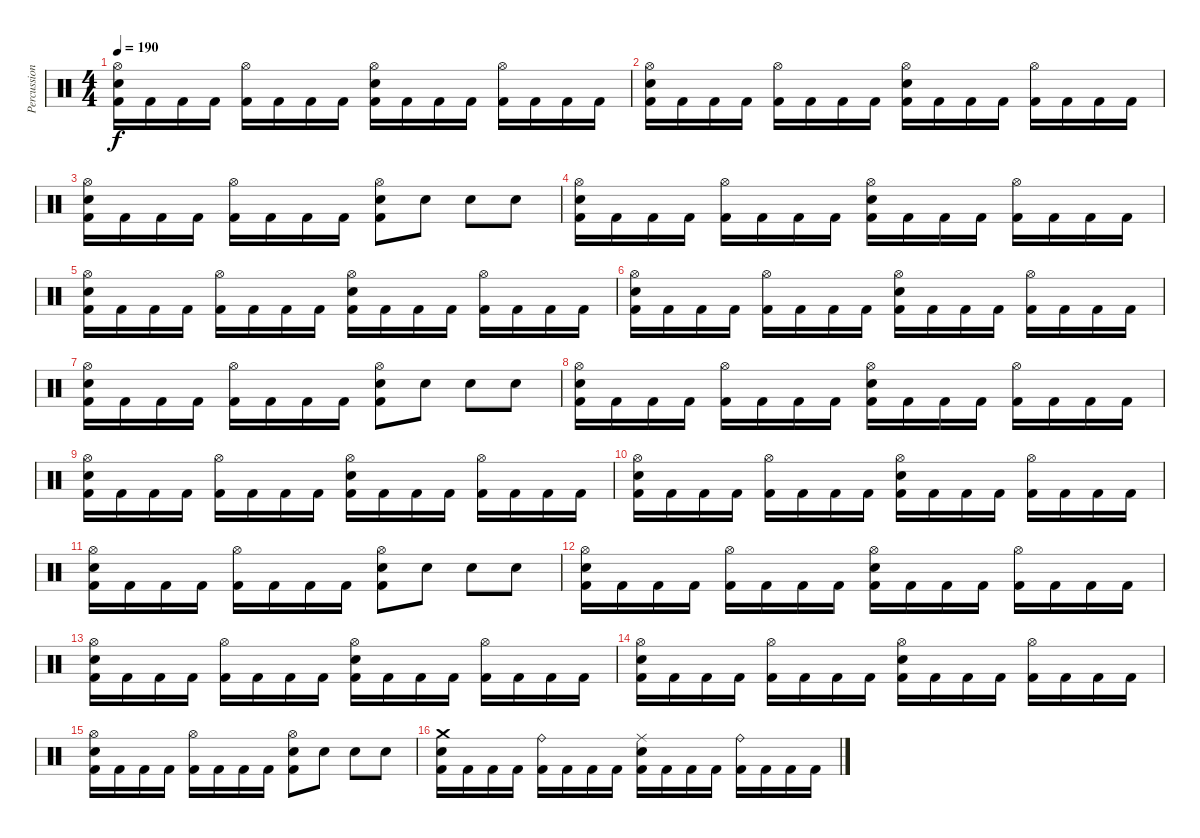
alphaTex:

\track ("Percussion" "Percussion") {instrument percussion}
\staff {score}
\articulation defaults
\ts (4 4)
\tempo 190
\clef neutral
\ks c
("Hi-Hat (open)" "Snare (hit) 2" "Kick (hit) 2").16{dy f} "Kick (hit) 2".16 "Kick (hit) 2".16 "Kick (hit) 2".16 ("Hi-Hat (open)" "Kick (hit) 2").16 "Kick (hit) 2".16 "Kick (hit) 2".16 "Kick (hit) 2".16 ("Hi-Hat (open)" "Snare (hit) 2" "Kick (hit) 2").16 "Kick (hit) 2".16 "Kick (hit) 2".16 "Kick (hit) 2".16 ("Hi-Hat (open)" "Kick (hit) 2").16 "Kick (hit) 2".16 "Kick (hit) 2".16 "Kick (hit) 2".16 |
("Hi-Hat (open)" "Snare (hit) 2" "Kick (hit) 2").16 "Kick (hit) 2".16 "Kick (hit) 2".16 "Kick (hit) 2".16 ("Hi-Hat (open)" "Kick (hit) 2").16 "Kick (hit) 2".16 "Kick (hit) 2".16 "Kick (hit) 2".16 ("Hi-Hat (open)" "Snare (hit) 2" "Kick (hit) 2").16 "Kick (hit) 2".16 "Kick (hit) 2".16 "Kick (hit) 2".16 ("Hi-Hat (open)" "Kick (hit) 2").16 "Kick (hit) 2".16 "Kick (hit) 2".16 "Kick (hit) 2".16 |
("Hi-Hat (open)" "Snare (hit) 2" "Kick (hit) 2").16 "Kick (hit) 2".16 "Kick (hit) 2".16 "Kick (hit) 2".16 ("Hi-Hat (open)" "Kick (hit) 2").16 "Kick (hit) 2".16 "Kick (hit) 2".16 "Kick (hit) 2".16 ("Hi-Hat (open)" "Snare (hit) 2" "Kick (hit) 2").8 "Snare (hit) 2".8 "Snare (hit) 2".8 "Snare (hit) 2".8 |
("Hi-Hat (open)" "Snare (hit) 2" "Kick (hit) 2").16 "Kick (hit) 2".16 "Kick (hit) 2".16 "Kick (hit) 2".16 ("Hi-Hat (open)" "Kick (hit) 2").16 "Kick (hit) 2".16 "Kick (hit) 2".16 "Kick (hit) 2".16 ("Hi-Hat (open)" "Snare (hit) 2" "Kick (hit) 2").16 "Kick (hit) 2".16 "Kick (hit) 2".16 "Kick (hit) 2".16 ("Hi-Hat (open)" "Kick (hit) 2").16 "Kick (hit) 2".16 "Kick (hit) 2".16 "Kick (hit) 2".16 |
("Hi-Hat (open)" "Snare (hit) 2" "Kick (hit) 2").16 "Kick (hit) 2".16 "Kick (hit) 2".16 "Kick (hit) 2".16 ("Hi-Hat (open)" "Kick (hit) 2").16 "Kick (hit) 2".16 "Kick (hit) 2".16 "Kick (hit) 2".16 ("Hi-Hat (open)" "Snare (hit) 2" "Kick (hit) 2").16 "Kick (hit) 2".16 "Kick (hit) 2".16 "Kick (hit) 2".16 ("Hi-Hat (open)" "Kick (hit) 2").16 "Kick (hit) 2".16 "Kick (hit) 2".16 "Kick (hit) 2".16 |
("Hi-Hat (open)" "Snare (hit) 2" "Kick (hit) 2").16 "Kick (hit) 2".16 "Kick (hit) 2".16 "Kick (hit) 2".16 ("Hi-Hat (open)" "Kick (hit) 2").16 "Kick (hit) 2".16 "Kick (hit) 2".16 "Kick (hit) 2".16 ("Hi-Hat (open)" "Snare (hit) 2" "Kick (hit) 2").16 "Kick (hit) 2".16 "Kick (hit) 2".16 "Kick (hit) 2".16 ("Hi-Hat (open)" "Kick (hit) 2").16 "Kick (hit) 2".16 "Kick (hit) 2".16 "Kick (hit) 2".16 |
("Hi-Hat (open)" "Snare (hit) 2" "Kick (hit) 2").16 "Kick (hit) 2".16 "Kick (hit) 2".16 "Kick (hit) 2".16 ("Hi-Hat (open)" "Kick (hit) 2").16 "Kick (hit) 2".16 "Kick (hit) 2".16 "Kick (hit) 2".16 ("Hi-Hat (open)" "Snare (hit) 2" "Kick (hit) 2").8 "Snare (hit) 2".8 "Snare (hit) 2".8 "Snare (hit) 2".8 |
("Hi-Hat (open)" "Snare (hit) 2" "Kick (hit) 2").16 "Kick (hit) 2".16 "Kick (hit) 2".16 "Kick (hit) 2".16 ("Hi-Hat (open)" "Kick (hit) 2").16 "Kick (hit) 2".16 "Kick (hit) 2".16 "Kick (hit) 2".16 ("Hi-Hat (open)" "Snare (hit) 2" "Kick (hit) 2").16 "Kick (hit) 2".16 "Kick (hit) 2".16 "Kick (hit) 2".16 ("Hi-Hat (open)" "Kick (hit) 2").16 "Kick (hit) 2".16 "Kick (hit) 2".16 "Kick (hit) 2".16 |
("Hi-Hat (open)" "Snare (hit) 2" "Kick (hit) 2").16 "Kick (hit) 2".16 "Kick (hit) 2".16 "Kick (hit) 2".16 ("Hi-Hat (open)" "Kick (hit) 2").16 "Kick (hit) 2".16 "Kick (hit) 2".16 "Kick (hit) 2".16 ("Hi-Hat (open)" "Snare (hit) 2" "Kick (hit) 2").16 "Kick (hit) 2".16 "Kick (hit) 2".16 "Kick (hit) 2".16 ("Hi-Hat (open)" "Kick (hit) 2").16 "Kick (hit) 2".16 "Kick (hit) 2".16 "Kick (hit) 2".16 |
("Hi-Hat (open)" "Snare (hit) 2" "Kick (hit) 2").16 "Kick (hit) 2".16 "Kick (hit) 2".16 "Kick (hit) 2".16 ("Hi-Hat (open)" "Kick (hit) 2").16 "Kick (hit) 2".16 "Kick (hit) 2".16 "Kick (hit) 2".16 ("Hi-Hat (open)" "Snare (hit) 2" "Kick (hit) 2").16 "Kick (hit) 2".16 "Kick (hit) 2".16 "Kick (hit) 2".16 ("Hi-Hat (open)" "Kick (hit) 2").16 "Kick (hit) 2".16 "Kick (hit) 2".16 "Kick (hit) 2".16 |
("Hi-Hat (open)" "Snare (hit) 2" "Kick (hit) 2").16 "Kick (hit) 2".16 "Kick (hit) 2".16 "Kick (hit) 2".16 ("Hi-Hat (open)" "Kick (hit) 2").16 "Kick (hit) 2".16 "Kick (hit) 2".16 "Kick (hit) 2".16 ("Hi-Hat (open)" "Snare (hit) 2" "Kick (hit) 2").8 "Snare (hit) 2".8 "Snare (hit) 2".8 "Snare (hit) 2".8 |
("Hi-Hat (open)" "Snare (hit) 2" "Kick (hit) 2").16 "Kick (hit) 2".16 "Kick (hit) 2".16 "Kick (hit) 2".16 ("Hi-Hat (open)" "Kick (hit) 2").16 "Kick (hit) 2".16 "Kick (hit) 2".16 "Kick (hit) 2".16 ("Hi-Hat (open)" "Snare (hit) 2" "Kick (hit) 2").16 "Kick (hit) 2".16 "Kick (hit) 2".16 "Kick (hit) 2".16 ("Hi-Hat (open)" "Kick (hit) 2").16 "Kick (hit) 2".16 "Kick (hit) 2".16 "Kick (hit) 2".16 |
("Hi-Hat (open)" "Snare (hit) 2" "Kick (hit) 2").16 "Kick (hit) 2".16 "Kick (hit) 2".16 "Kick (hit) 2".16 ("Hi-Hat (open)" "Kick (hit) 2").16 "Kick (hit) 2".16 "Kick (hit) 2".16 "Kick (hit) 2".16 ("Hi-Hat (open)" "Snare (hit) 2" "Kick (hit) 2").16 "Kick (hit) 2".16 "Kick (hit) 2".16 "Kick (hit) 2".16 ("Hi-Hat (open)" "Kick (hit) 2").16 "Kick (hit) 2".16 "Kick (hit) 2".16 "Kick (hit) 2".16 |
("Hi-Hat (open)" "Snare (hit) 2" "Kick (hit) 2").16 "Kick (hit) 2".16 "Kick (hit) 2".16 "Kick (hit) 2".16 ("Hi-Hat (open)" "Kick (hit) 2").16 "Kick (hit) 2".16 "Kick (hit) 2".16 "Kick (hit) 2".16 ("Hi-Hat (open)" "Snare (hit) 2" "Kick (hit) 2").16 "Kick (hit) 2".16 "Kick (hit) 2".16 "Kick (hit) 2".16 ("Hi-Hat (open)" "Kick (hit) 2").16 "Kick (hit) 2".16 "Kick (hit) 2".16 "Kick (hit) 2".16 |
("Hi-Hat (open)" "Snare (hit) 2" "Kick (hit) 2").16 "Kick (hit) 2".16 "Kick (hit) 2".16 "Kick (hit) 2".16 ("Hi-Hat (open)" "Kick (hit) 2").16 "Kick (hit) 2".16 "Kick (hit) 2".16 "Kick (hit) 2".16 ("Hi-Hat (open)" "Snare (hit) 2" "Kick (hit) 2").8 "Snare (hit) 2".8 "Snare (hit) 2".8 "Snare (hit) 2".8 |
("Crash medium (hit)" "Snare (hit) 2" "Kick (hit) 2").16 "Kick (hit) 2".16 "Kick (hit) 2".16 "Kick (hit) 2".16 ("Ride (bell)" "Kick (hit) 2").16 "Kick (hit) 2".16 "Kick (hit) 2".16 "Kick (hit) 2".16 ("Ride (middle)" "Snare (hit) 2" "Kick (hit) 2").16 "Kick (hit) 2".16 "Kick (hit) 2".16 "Kick (hit) 2".16 ("Ride (bell)" "Kick (hit) 2").16 "Kick (hit) 2".16 "Kick (hit) 2".16 "Kick (hit) 2".16
